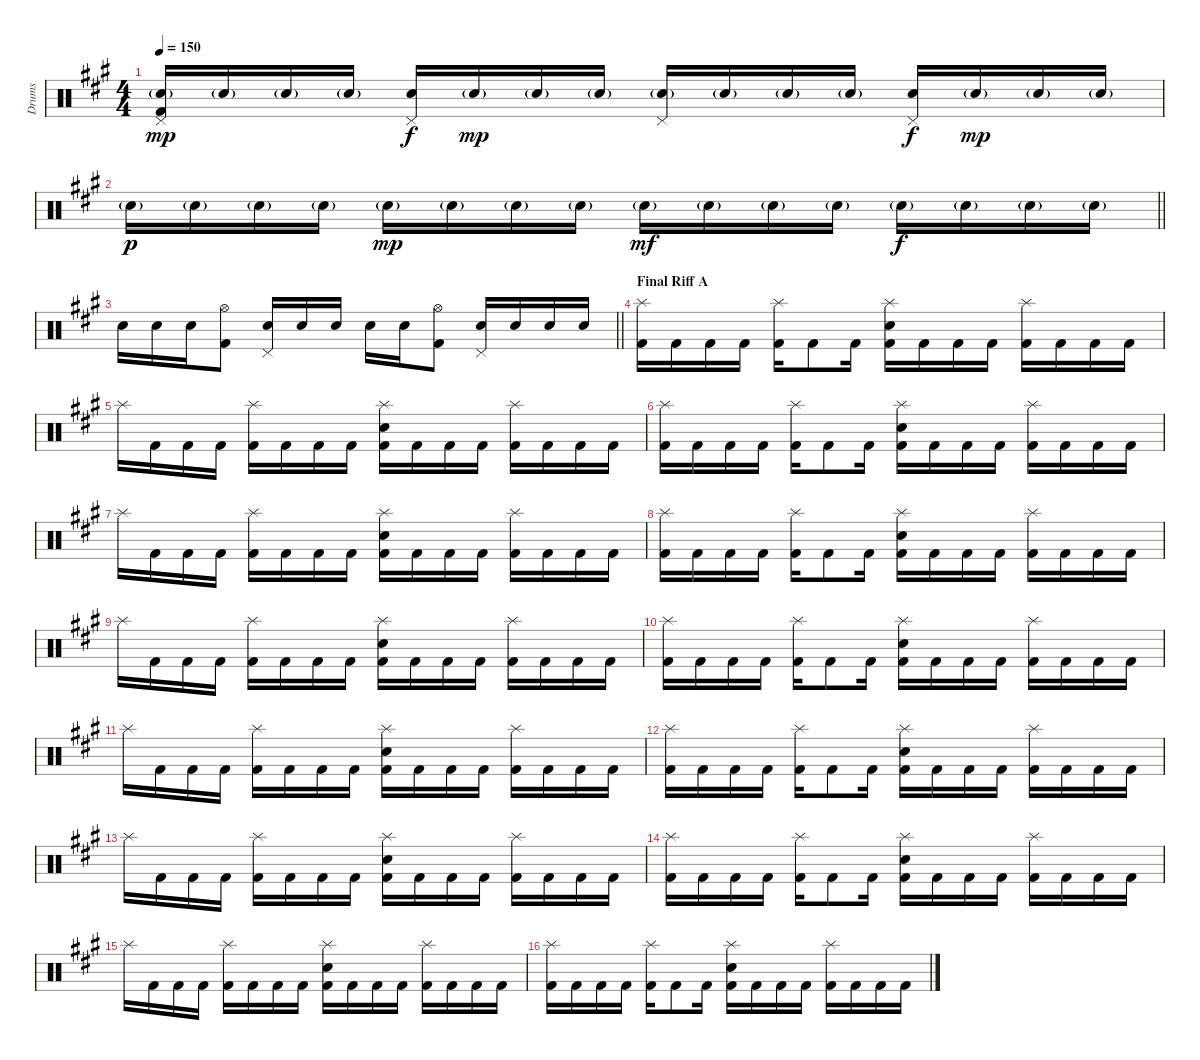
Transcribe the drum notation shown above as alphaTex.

\track ("Drums" "Drums") {instrument percussion}
\staff {score}
\articulation defaults
\ts (4 4)
\tempo 150
\clef neutral
\ks f#minor
("Pedal Hi-Hat (hit)" "Snare (hit) 2"{g} "Kick (hit) 2").16{dy mp} "Snare (hit) 2"{g}.16 "Snare (hit) 2"{g}.16 "Snare (hit) 2"{g}.16 ("Pedal Hi-Hat (hit)" "Snare (hit) 2").16{dy f} "Snare (hit) 2"{g}.16{dy mp} "Snare (hit) 2"{g}.16 "Snare (hit) 2"{g}.16 ("Pedal Hi-Hat (hit)" "Snare (hit) 2"{g}).16 "Snare (hit) 2"{g}.16 "Snare (hit) 2"{g}.16 "Snare (hit) 2"{g}.16 ("Pedal Hi-Hat (hit)" "Snare (hit) 2").16{dy f} "Snare (hit) 2"{g}.16{dy mp} "Snare (hit) 2"{g}.16 "Snare (hit) 2"{g}.16 |
\barLineRight lightlight "Snare (hit) 2"{g}.16{dy p} "Snare (hit) 2"{g}.16 "Snare (hit) 2"{g}.16 "Snare (hit) 2"{g}.16 "Snare (hit) 2"{g}.16{dy mp} "Snare (hit) 2"{g}.16 "Snare (hit) 2"{g}.16 "Snare (hit) 2"{g}.16 "Snare (hit) 2"{g}.16{dy mf} "Snare (hit) 2"{g}.16 "Snare (hit) 2"{g}.16 "Snare (hit) 2"{g}.16 "Snare (hit) 2"{g}.16{dy f} "Snare (hit) 2"{g}.16 "Snare (hit) 2"{g}.16 "Snare (hit) 2"{g}.16
|
\barLineRight lightlight "Snare (hit) 2".16 "Snare (hit) 2".16 "Snare (hit) 2".16
("Hi-Hat (open)" "Kick (hit) 2").8 ("Pedal Hi-Hat (hit)" "Snare (hit) 2").16 "Snare (hit) 2".16 "Snare (hit) 2".16 "Snare (hit) 2".16 "Snare (hit) 2".16 ("Hi-Hat (open)" "Kick (hit) 2").8 ("Pedal Hi-Hat (hit)" "Snare (hit) 2").16 "Snare (hit) 2".16 "Snare (hit) 2".16 "Snare (hit) 2".16 |
\section ("" "Final Riff A")
("Splash (hit)" "Kick (hit) 2").16 "Kick (hit) 2".16 "Kick (hit) 2".16 "Kick (hit) 2".16 ("Splash (hit)" "Kick (hit) 2").16 "Kick (hit) 2".8 "Kick (hit) 2".16 ("Splash (hit)" "Snare (hit) 2" "Kick (hit) 2").16 "Kick (hit) 2".16 "Kick (hit) 2".16 "Kick (hit) 2".16 ("Splash (hit)" "Kick (hit) 2").16 "Kick (hit) 2".16 "Kick (hit) 2".16 "Kick (hit) 2".16 |
"Splash (hit)".16 "Kick (hit) 2".16 "Kick (hit) 2".16 "Kick (hit) 2".16 ("Splash (hit)" "Kick (hit) 2").16 "Kick (hit) 2".16 "Kick (hit) 2".16 "Kick (hit) 2".16 ("Splash (hit)" "Snare (hit) 2" "Kick (hit) 2").16 "Kick (hit) 2".16 "Kick (hit) 2".16 "Kick (hit) 2".16 ("Splash (hit)" "Kick (hit) 2").16 "Kick (hit) 2".16 "Kick (hit) 2".16 "Kick (hit) 2".16 |
("Splash (hit)" "Kick (hit) 2").16 "Kick (hit) 2".16 "Kick (hit) 2".16 "Kick (hit) 2".16 ("Splash (hit)" "Kick (hit) 2").16 "Kick (hit) 2".8 "Kick (hit) 2".16 ("Splash (hit)" "Snare (hit) 2" "Kick (hit) 2").16 "Kick (hit) 2".16 "Kick (hit) 2".16 "Kick (hit) 2".16 ("Splash (hit)" "Kick (hit) 2").16 "Kick (hit) 2".16 "Kick (hit) 2".16 "Kick (hit) 2".16 |
"Splash (hit)".16 "Kick (hit) 2".16 "Kick (hit) 2".16 "Kick (hit) 2".16 ("Splash (hit)" "Kick (hit) 2").16 "Kick (hit) 2".16 "Kick (hit) 2".16 "Kick (hit) 2".16 ("Splash (hit)" "Snare (hit) 2" "Kick (hit) 2").16 "Kick (hit) 2".16 "Kick (hit) 2".16 "Kick (hit) 2".16 ("Splash (hit)" "Kick (hit) 2").16 "Kick (hit) 2".16 "Kick (hit) 2".16 "Kick (hit) 2".16 |
("Splash (hit)" "Kick (hit) 2").16 "Kick (hit) 2".16 "Kick (hit) 2".16 "Kick (hit) 2".16 ("Splash (hit)" "Kick (hit) 2").16 "Kick (hit) 2".8 "Kick (hit) 2".16 ("Splash (hit)" "Snare (hit) 2" "Kick (hit) 2").16 "Kick (hit) 2".16 "Kick (hit) 2".16 "Kick (hit) 2".16 ("Splash (hit)" "Kick (hit) 2").16 "Kick (hit) 2".16 "Kick (hit) 2".16 "Kick (hit) 2".16 |
"Splash (hit)".16 "Kick (hit) 2".16 "Kick (hit) 2".16 "Kick (hit) 2".16 ("Splash (hit)" "Kick (hit) 2").16 "Kick (hit) 2".16 "Kick (hit) 2".16 "Kick (hit) 2".16 ("Splash (hit)" "Snare (hit) 2" "Kick (hit) 2").16 "Kick (hit) 2".16 "Kick (hit) 2".16 "Kick (hit) 2".16 ("Splash (hit)" "Kick (hit) 2").16 "Kick (hit) 2".16 "Kick (hit) 2".16 "Kick (hit) 2".16 |
("Splash (hit)" "Kick (hit) 2").16 "Kick (hit) 2".16 "Kick (hit) 2".16 "Kick (hit) 2".16 ("Splash (hit)" "Kick (hit) 2").16 "Kick (hit) 2".8 "Kick (hit) 2".16 ("Splash (hit)" "Snare (hit) 2" "Kick (hit) 2").16 "Kick (hit) 2".16 "Kick (hit) 2".16 "Kick (hit) 2".16 ("Splash (hit)" "Kick (hit) 2").16 "Kick (hit) 2".16 "Kick (hit) 2".16 "Kick (hit) 2".16 |
"Splash (hit)".16 "Kick (hit) 2".16 "Kick (hit) 2".16 "Kick (hit) 2".16 ("Splash (hit)" "Kick (hit) 2").16 "Kick (hit) 2".16 "Kick (hit) 2".16 "Kick (hit) 2".16 ("Splash (hit)" "Snare (hit) 2" "Kick (hit) 2").16 "Kick (hit) 2".16 "Kick (hit) 2".16 "Kick (hit) 2".16 ("Splash (hit)" "Kick (hit) 2").16 "Kick (hit) 2".16 "Kick (hit) 2".16 "Kick (hit) 2".16 |
("Splash (hit)" "Kick (hit) 2").16 "Kick (hit) 2".16 "Kick (hit) 2".16 "Kick (hit) 2".16 ("Splash (hit)" "Kick (hit) 2").16 "Kick (hit) 2".8 "Kick (hit) 2".16 ("Splash (hit)" "Snare (hit) 2" "Kick (hit) 2").16 "Kick (hit) 2".16 "Kick (hit) 2".16 "Kick (hit) 2".16 ("Splash (hit)" "Kick (hit) 2").16 "Kick (hit) 2".16 "Kick (hit) 2".16 "Kick (hit) 2".16 |
"Splash (hit)".16 "Kick (hit) 2".16 "Kick (hit) 2".16 "Kick (hit) 2".16 ("Splash (hit)" "Kick (hit) 2").16 "Kick (hit) 2".16 "Kick (hit) 2".16 "Kick (hit) 2".16 ("Splash (hit)" "Snare (hit) 2" "Kick (hit) 2").16 "Kick (hit) 2".16 "Kick (hit) 2".16 "Kick (hit) 2".16 ("Splash (hit)" "Kick (hit) 2").16 "Kick (hit) 2".16 "Kick (hit) 2".16 "Kick (hit) 2".16 |
("Splash (hit)" "Kick (hit) 2").16 "Kick (hit) 2".16 "Kick (hit) 2".16 "Kick (hit) 2".16 ("Splash (hit)" "Kick (hit) 2").16 "Kick (hit) 2".8 "Kick (hit) 2".16 ("Splash (hit)" "Snare (hit) 2" "Kick (hit) 2").16 "Kick (hit) 2".16 "Kick (hit) 2".16 "Kick (hit) 2".16 ("Splash (hit)" "Kick (hit) 2").16 "Kick (hit) 2".16 "Kick (hit) 2".16 "Kick (hit) 2".16 |
"Splash (hit)".16 "Kick (hit) 2".16 "Kick (hit) 2".16 "Kick (hit) 2".16 ("Splash (hit)" "Kick (hit) 2").16 "Kick (hit) 2".16 "Kick (hit) 2".16 "Kick (hit) 2".16 ("Splash (hit)" "Snare (hit) 2" "Kick (hit) 2").16 "Kick (hit) 2".16 "Kick (hit) 2".16 "Kick (hit) 2".16 ("Splash (hit)" "Kick (hit) 2").16 "Kick (hit) 2".16 "Kick (hit) 2".16 "Kick (hit) 2".16 |
("Splash (hit)" "Kick (hit) 2").16 "Kick (hit) 2".16 "Kick (hit) 2".16 "Kick (hit) 2".16 ("Splash (hit)" "Kick (hit) 2").16 "Kick (hit) 2".8 "Kick (hit) 2".16 ("Splash (hit)" "Snare (hit) 2" "Kick (hit) 2").16 "Kick (hit) 2".16 "Kick (hit) 2".16 "Kick (hit) 2".16 ("Splash (hit)" "Kick (hit) 2").16 "Kick (hit) 2".16 "Kick (hit) 2".16 "Kick (hit) 2".16
